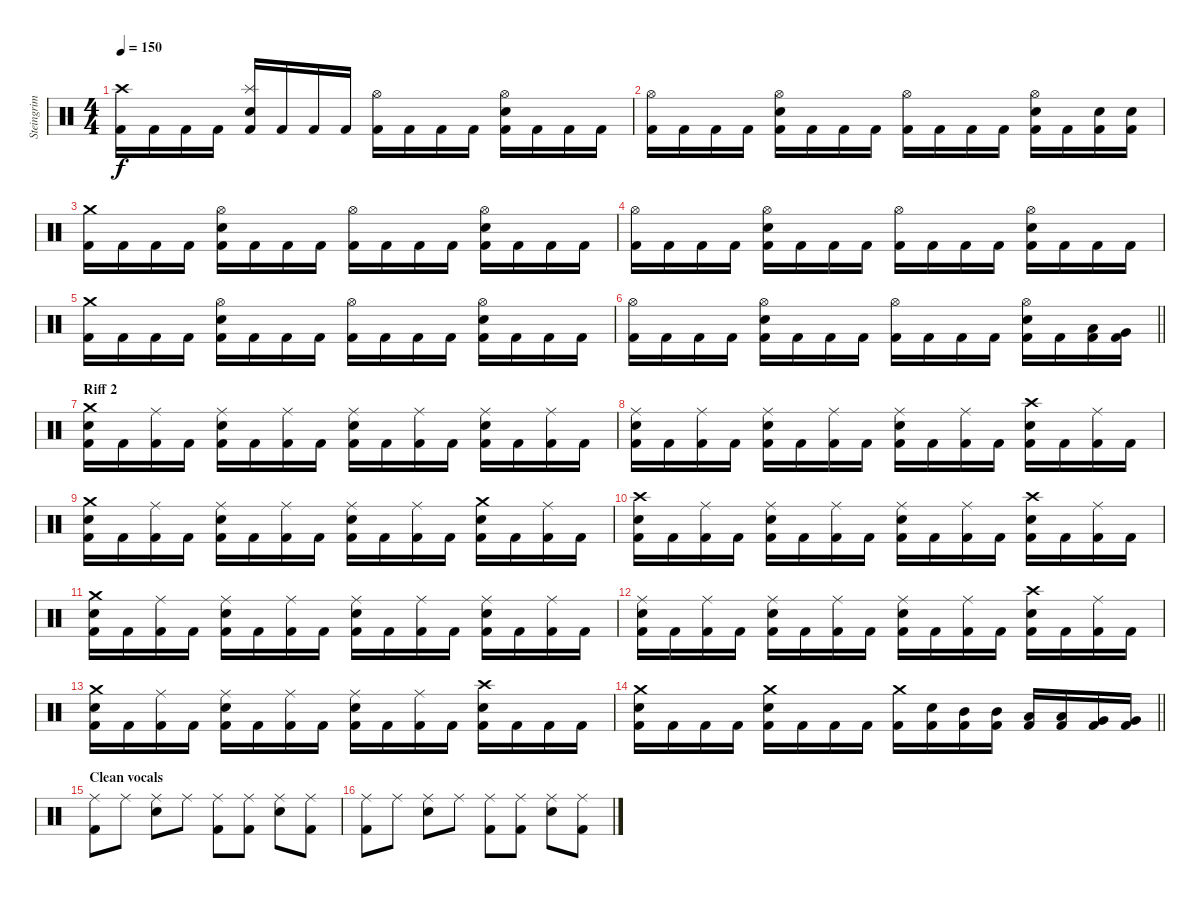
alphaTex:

\track ("Steingrim" "Steingrim") {instrument percussion}
\staff {score}
\articulation defaults
\ts (4 4)
\tempo 150
\clef neutral
\ks c
("Crash high (hit)" "Kick (hit) 2").16{dy f} "Kick (hit) 2".16 "Kick (hit) 2".16 "Kick (hit) 2".16 ("Splash (hit)" "Snare (hit) 2" "Kick (hit) 2").16 "Kick (hit) 2".16 "Kick (hit) 2".16 "Kick (hit) 2".16 ("Hi-Hat (open)" "Kick (hit) 2").16 "Kick (hit) 2".16 "Kick (hit) 2".16 "Kick (hit) 2".16 ("Hi-Hat (open)" "Snare (hit) 2" "Kick (hit) 2").16 "Kick (hit) 2".16 "Kick (hit) 2".16 "Kick (hit) 2".16 |
("Hi-Hat (open)" "Kick (hit) 2").16 "Kick (hit) 2".16 "Kick (hit) 2".16 "Kick (hit) 2".16 ("Hi-Hat (open)" "Snare (hit) 2" "Kick (hit) 2").16 "Kick (hit) 2".16 "Kick (hit) 2".16 "Kick (hit) 2".16 ("Hi-Hat (open)" "Kick (hit) 2").16 "Kick (hit) 2".16 "Kick (hit) 2".16 "Kick (hit) 2".16 ("Hi-Hat (open)" "Snare (hit) 2" "Kick (hit) 2").16 "Kick (hit) 2".16 ("Snare (hit) 2" "Kick (hit) 2").16 ("Snare (hit) 2" "Kick (hit) 2").16 |
("Crash medium (hit)" "Kick (hit) 2").16 "Kick (hit) 2".16 "Kick (hit) 2".16 "Kick (hit) 2".16 ("Hi-Hat (open)" "Snare (hit) 2" "Kick (hit) 2").16 "Kick (hit) 2".16 "Kick (hit) 2".16 "Kick (hit) 2".16 ("Hi-Hat (open)" "Kick (hit) 2").16 "Kick (hit) 2".16 "Kick (hit) 2".16 "Kick (hit) 2".16 ("Hi-Hat (open)" "Snare (hit) 2" "Kick (hit) 2").16 "Kick (hit) 2".16 "Kick (hit) 2".16 "Kick (hit) 2".16 |
("Hi-Hat (open)" "Kick (hit) 2").16 "Kick (hit) 2".16 "Kick (hit) 2".16 "Kick (hit) 2".16 ("Hi-Hat (open)" "Snare (hit) 2" "Kick (hit) 2").16 "Kick (hit) 2".16 "Kick (hit) 2".16 "Kick (hit) 2".16 ("Hi-Hat (open)" "Kick (hit) 2").16 "Kick (hit) 2".16 "Kick (hit) 2".16 "Kick (hit) 2".16 ("Hi-Hat (open)" "Snare (hit) 2" "Kick (hit) 2").16 "Kick (hit) 2".16 "Kick (hit) 2".16 "Kick (hit) 2".16 |
("Crash medium (hit)" "Kick (hit) 2").16 "Kick (hit) 2".16 "Kick (hit) 2".16 "Kick (hit) 2".16 ("Hi-Hat (open)" "Snare (hit) 2" "Kick (hit) 2").16 "Kick (hit) 2".16 "Kick (hit) 2".16 "Kick (hit) 2".16 ("Hi-Hat (open)" "Kick (hit) 2").16 "Kick (hit) 2".16 "Kick (hit) 2".16 "Kick (hit) 2".16 ("Hi-Hat (open)" "Snare (hit) 2" "Kick (hit) 2").16 "Kick (hit) 2".16 "Kick (hit) 2".16 "Kick (hit) 2".16 |
\barLineRight lightlight
("Hi-Hat (open)" "Kick (hit) 2").16 "Kick (hit) 2".16 "Kick (hit) 2".16 "Kick (hit) 2".16 ("Hi-Hat (open)" "Snare (hit) 2" "Kick (hit) 2").16 "Kick (hit) 2".16 "Kick (hit) 2".16 "Kick (hit) 2".16 ("Hi-Hat (open)" "Kick (hit) 2").16 "Kick (hit) 2".16 "Kick (hit) 2".16 "Kick (hit) 2".16 ("Hi-Hat (open)" "Snare (hit) 2" "Kick (hit) 2").16 "Kick (hit) 2".16 ("Low Tom (hit)" "Kick (hit) 2").16 ("Very Low Tom (hit)" "Kick (hit) 2").16 |
\section ("" "Riff 2")
("Crash medium (hit)" "Snare (hit) 2" "Kick (hit) 2").16 "Kick (hit) 2".16 ("Ride (middle)" "Kick (hit) 2").16 "Kick (hit) 2".16 ("Ride (middle)" "Snare (hit) 2" "Kick (hit) 2").16 "Kick (hit) 2".16 ("Ride (middle)" "Kick (hit) 2").16 "Kick (hit) 2".16 ("Ride (middle)" "Snare (hit) 2" "Kick (hit) 2").16 "Kick (hit) 2".16 ("Ride (middle)" "Kick (hit) 2").16 "Kick (hit) 2".16 ("Ride (middle)" "Snare (hit) 2" "Kick (hit) 2").16 "Kick (hit) 2".16 ("Ride (middle)" "Kick (hit) 2").16 "Kick (hit) 2".16 |
("Ride (middle)" "Snare (hit) 2" "Kick (hit) 2").16 "Kick (hit) 2".16 ("Ride (middle)" "Kick (hit) 2").16 "Kick (hit) 2".16 ("Ride (middle)" "Snare (hit) 2" "Kick (hit) 2").16 "Kick (hit) 2".16 ("Ride (middle)" "Kick (hit) 2").16 "Kick (hit) 2".16 ("Ride (middle)" "Snare (hit) 2" "Kick (hit) 2").16 "Kick (hit) 2".16 ("Ride (middle)" "Kick (hit) 2").16 "Kick (hit) 2".16 ("Crash high (hit)" "Snare (hit) 2" "Kick (hit) 2").16 "Kick (hit) 2".16 ("Ride (middle)" "Kick (hit) 2").16 "Kick (hit) 2".16 |
("Crash medium (hit)" "Snare (hit) 2" "Kick (hit) 2").16 "Kick (hit) 2".16 ("Ride (middle)" "Kick (hit) 2").16 "Kick (hit) 2".16 ("Ride (middle)" "Snare (hit) 2" "Kick (hit) 2").16 "Kick (hit) 2".16 ("Ride (middle)" "Kick (hit) 2").16 "Kick (hit) 2".16 ("Ride (middle)" "Snare (hit) 2" "Kick (hit) 2").16 "Kick (hit) 2".16 ("Ride (middle)" "Kick (hit) 2").16 "Kick (hit) 2".16 ("Crash medium (hit)" "Snare (hit) 2" "Kick (hit) 2").16 "Kick (hit) 2".16 ("Ride (middle)" "Kick (hit) 2").16 "Kick (hit) 2".16 |
("Crash high (hit)" "Snare (hit) 2" "Kick (hit) 2").16 "Kick (hit) 2".16 ("Ride (middle)" "Kick (hit) 2").16 "Kick (hit) 2".16 ("Ride (middle)" "Snare (hit) 2" "Kick (hit) 2").16 "Kick (hit) 2".16 ("Ride (middle)" "Kick (hit) 2").16 "Kick (hit) 2".16 ("Ride (middle)" "Snare (hit) 2" "Kick (hit) 2").16 "Kick (hit) 2".16 ("Ride (middle)" "Kick (hit) 2").16 "Kick (hit) 2".16 ("Crash high (hit)" "Snare (hit) 2" "Kick (hit) 2").16 "Kick (hit) 2".16 ("Ride (middle)" "Kick (hit) 2").16 "Kick (hit) 2".16 |
("Crash medium (hit)" "Snare (hit) 2" "Kick (hit) 2").16 "Kick (hit) 2".16 ("Ride (middle)" "Kick (hit) 2").16 "Kick (hit) 2".16 ("Ride (middle)" "Snare (hit) 2" "Kick (hit) 2").16 "Kick (hit) 2".16 ("Ride (middle)" "Kick (hit) 2").16 "Kick (hit) 2".16 ("Ride (middle)" "Snare (hit) 2" "Kick (hit) 2").16 "Kick (hit) 2".16 ("Ride (middle)" "Kick (hit) 2").16 "Kick (hit) 2".16 ("Ride (middle)" "Snare (hit) 2" "Kick (hit) 2").16 "Kick (hit) 2".16 ("Ride (middle)" "Kick (hit) 2").16 "Kick (hit) 2".16 |
("Ride (middle)" "Snare (hit) 2" "Kick (hit) 2").16 "Kick (hit) 2".16 ("Ride (middle)" "Kick (hit) 2").16 "Kick (hit) 2".16 ("Ride (middle)" "Snare (hit) 2" "Kick (hit) 2").16 "Kick (hit) 2".16 ("Ride (middle)" "Kick (hit) 2").16 "Kick (hit) 2".16 ("Ride (middle)" "Snare (hit) 2" "Kick (hit) 2").16 "Kick (hit) 2".16 ("Ride (middle)" "Kick (hit) 2").16 "Kick (hit) 2".16 ("Crash high (hit)" "Snare (hit) 2" "Kick (hit) 2").16 "Kick (hit) 2".16 ("Ride (middle)" "Kick (hit) 2").16 "Kick (hit) 2".16 |
("Crash medium (hit)" "Snare (hit) 2" "Kick (hit) 2").16 "Kick (hit) 2".16 ("Ride (middle)" "Kick (hit) 2").16 "Kick (hit) 2".16 ("Ride (middle)" "Snare (hit) 2" "Kick (hit) 2").16 "Kick (hit) 2".16 ("Ride (middle)" "Kick (hit) 2").16 "Kick (hit) 2".16 ("Ride (middle)" "Snare (hit) 2" "Kick (hit) 2").16 "Kick (hit) 2".16 ("Ride (middle)" "Kick (hit) 2").16 "Kick (hit) 2".16 ("Crash high (hit)" "Snare (hit) 2" "Kick (hit) 2").16 "Kick (hit) 2".16 "Kick (hit) 2".16 "Kick (hit) 2".16 |
\barLineRight lightlight
("Crash medium (hit)" "Snare (hit) 2" "Kick (hit) 2").16 "Kick (hit) 2".16 "Kick (hit) 2".16 "Kick (hit) 2".16 ("Crash medium (hit)" "Snare (hit) 2" "Kick (hit) 2").16 "Kick (hit) 2".16 "Kick (hit) 2".16 "Kick (hit) 2".16 ("Crash medium (hit)" "Kick (hit) 2").16 ("Snare (hit) 2" "Kick (hit) 2").16 ("Mid Tom (hit)" "Kick (hit) 2").16 ("Mid Tom (hit)" "Kick (hit) 2").16 ("Low Tom (hit)" "Kick (hit) 2").16 ("Low Tom (hit)" "Kick (hit) 2").16 ("Very Low Tom (hit)" "Kick (hit) 2").16 ("Very Low Tom (hit)" "Kick (hit) 2").16 |
\section ("" "Clean vocals")
("Ride (middle)" "Kick (hit) 2").8 "Ride (middle)".8 ("Ride (middle)" "Snare (hit) 2").8 "Ride (middle)".8 ("Ride (middle)" "Kick (hit) 2").8 ("Ride (middle)" "Kick (hit) 2").8 ("Ride (middle)" "Snare (hit) 2").8 ("Ride (middle)" "Kick (hit) 2").8 |
("Ride (middle)" "Kick (hit) 2").8 "Ride (middle)".8 ("Ride (middle)" "Snare (hit) 2").8 "Ride (middle)".8 ("Ride (middle)" "Kick (hit) 2").8 ("Ride (middle)" "Kick (hit) 2").8 ("Ride (middle)" "Snare (hit) 2").8 ("Ride (middle)" "Kick (hit) 2").8
